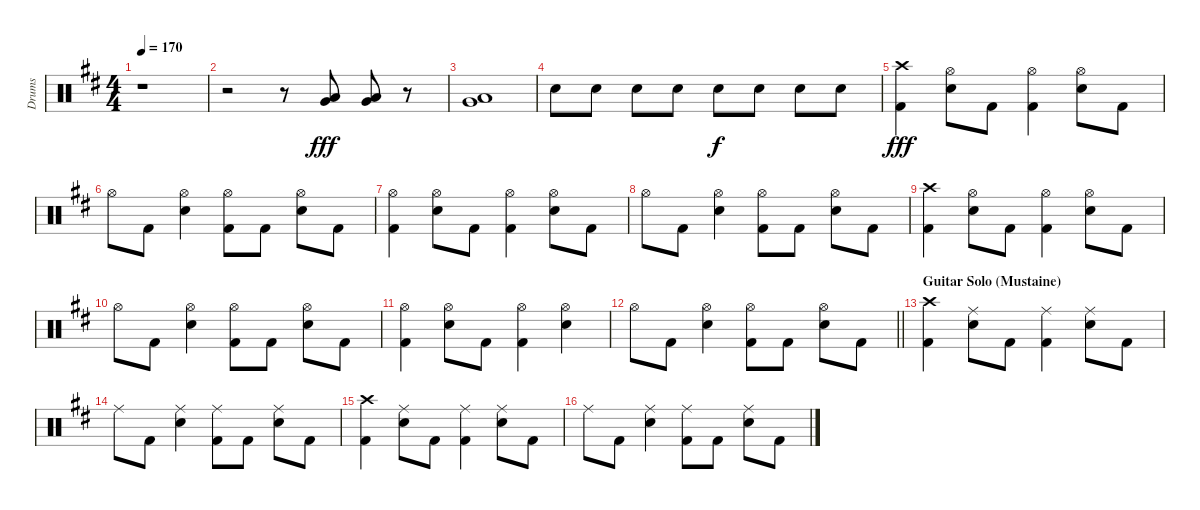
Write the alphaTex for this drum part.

\track ("Drums" "Drums") {instrument percussion}
\staff {score}
\articulation defaults
\ts (4 4)
\tempo 170
\clef neutral
\ks bminor
r.1{dy fff} |
r.2 r.8 ("Very Low Tom (hit)" "Low Floor Tom (hit)").8 ("Very Low Tom (hit)" "Low Floor Tom (hit)").8 r.8 |
("Very Low Tom (hit)" "Low Floor Tom (hit)").1 |
"Snare (hit) 2".8 "Snare (hit) 2".8 "Snare (hit) 2".8 "Snare (hit) 2".8 "Snare (hit) 2".8{dy f} "Snare (hit) 2".8 "Snare (hit) 2".8 "Snare (hit) 2".8 |
("Crash high (hit)" "Kick (hit) 2").4{dy fff} ("Hi-Hat (open)" "Snare (hit) 2").8 "Kick (hit) 2".8 ("Hi-Hat (open)" "Kick (hit) 2").4 ("Hi-Hat (open)" "Snare (hit) 2").8 "Kick (hit) 2".8 |
"Hi-Hat (open)".8 "Kick (hit) 2".8 ("Hi-Hat (open)" "Snare (hit) 2").4 ("Hi-Hat (open)" "Kick (hit) 2").8 "Kick (hit) 2".8 ("Hi-Hat (open)" "Snare (hit) 2").8 "Kick (hit) 2".8 |
("Hi-Hat (open)" "Kick (hit) 2").4 ("Hi-Hat (open)" "Snare (hit) 2").8 "Kick (hit) 2".8 ("Hi-Hat (open)" "Kick (hit) 2").4 ("Hi-Hat (open)" "Snare (hit) 2").8 "Kick (hit) 2".8 |
"Hi-Hat (open)".8 "Kick (hit) 2".8 ("Hi-Hat (open)" "Snare (hit) 2").4 ("Hi-Hat (open)" "Kick (hit) 2").8 "Kick (hit) 2".8 ("Hi-Hat (open)" "Snare (hit) 2").8 "Kick (hit) 2".8 |
("Crash high (hit)" "Kick (hit) 2").4 ("Hi-Hat (open)" "Snare (hit) 2").8 "Kick (hit) 2".8 ("Hi-Hat (open)" "Kick (hit) 2").4 ("Hi-Hat (open)" "Snare (hit) 2").8 "Kick (hit) 2".8 |
"Hi-Hat (open)".8 "Kick (hit) 2".8 ("Hi-Hat (open)" "Snare (hit) 2").4 ("Hi-Hat (open)" "Kick (hit) 2").8 "Kick (hit) 2".8 ("Hi-Hat (open)" "Snare (hit) 2").8 "Kick (hit) 2".8 |
("Hi-Hat (open)" "Kick (hit) 2").4 ("Hi-Hat (open)" "Snare (hit) 2").8 "Kick (hit) 2".8 ("Hi-Hat (open)" "Kick (hit) 2").4 ("Hi-Hat (open)" "Snare (hit) 2").4 |
\barLineRight lightlight "Hi-Hat (open)".8 "Kick (hit) 2".8
("Hi-Hat (open)" "Snare (hit) 2").4 ("Hi-Hat (open)" "Kick (hit) 2").8 "Kick (hit) 2".8 ("Hi-Hat (open)" "Snare (hit) 2").8 "Kick (hit) 2".8 |
\section ("" "Guitar Solo (Mustaine)")
("Crash high (hit)" "Kick (hit) 2").4 ("Ride (middle)" "Snare (hit) 2").8 "Kick (hit) 2".8 ("Ride (middle)" "Kick (hit) 2").4 ("Ride (middle)" "Snare (hit) 2").8 "Kick (hit) 2".8 |
"Ride (middle)".8 "Kick (hit) 2".8 ("Ride (middle)" "Snare (hit) 2").4 ("Ride (middle)" "Kick (hit) 2").8 "Kick (hit) 2".8 ("Ride (middle)" "Snare (hit) 2").8 "Kick (hit) 2".8 |
("Crash high (hit)" "Kick (hit) 2").4 ("Ride (middle)" "Snare (hit) 2").8 "Kick (hit) 2".8 ("Ride (middle)" "Kick (hit) 2").4 ("Ride (middle)" "Snare (hit) 2").8 "Kick (hit) 2".8 |
"Ride (middle)".8 "Kick (hit) 2".8 ("Ride (middle)" "Snare (hit) 2").4 ("Ride (middle)" "Kick (hit) 2").8 "Kick (hit) 2".8 ("Ride (middle)" "Snare (hit) 2").8 "Kick (hit) 2".8
